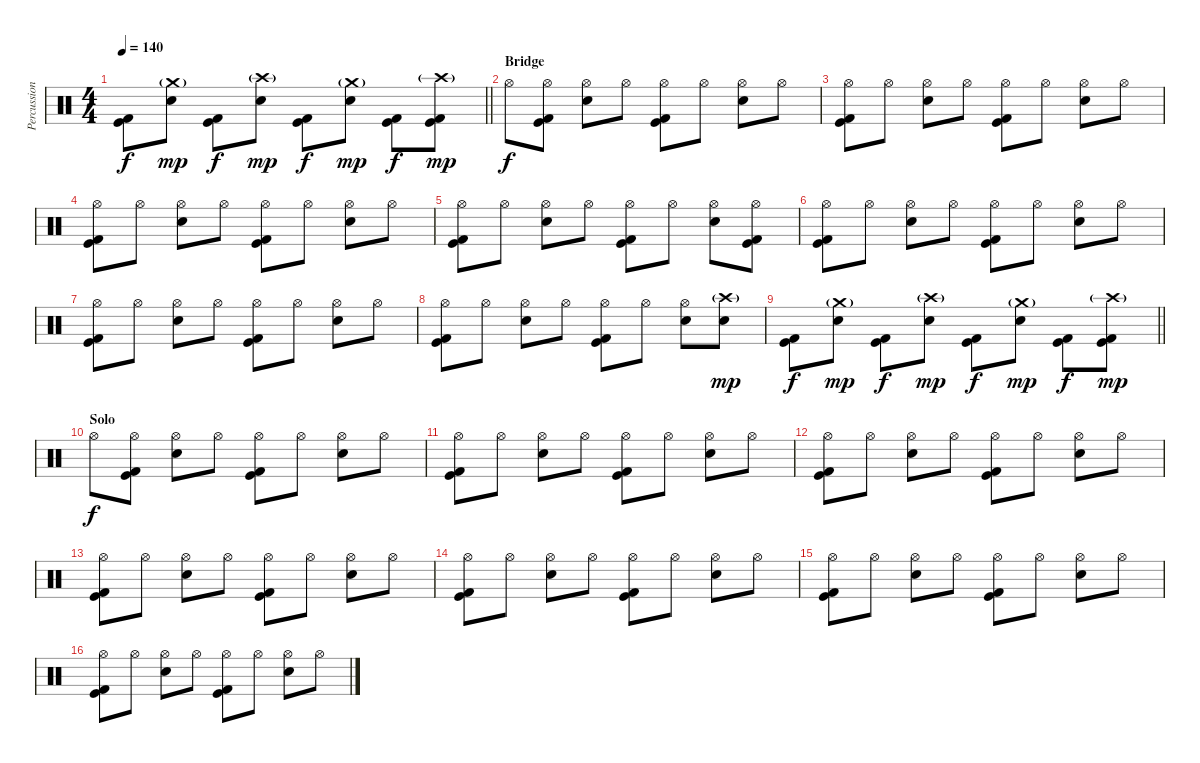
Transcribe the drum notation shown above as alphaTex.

\track ("Percussion" "Percussion") {instrument percussion}
\staff {score}
\articulation defaults
\ts (4 4)
\tempo 140
\clef neutral
\barLineRight lightlight
\ks c
("Kick (hit)" "Kick (hit) 2").8{dy f} ("Crash medium (hit)"{g} "Electric Snare (hit)").8{dy mp} ("Kick (hit)" "Kick (hit) 2").8{dy f} ("Crash high (hit)"{g} "Electric Snare (hit)").8{dy mp} ("Kick (hit)" "Kick (hit) 2").8{dy f} ("Crash medium (hit)"{g} "Electric Snare (hit)").8{dy mp} ("Kick (hit)" "Kick (hit) 2").8{dy f} ("Crash high (hit)"{g} "Kick (hit)" "Kick (hit) 2").8{dy mp} |
\section ("" "Bridge")
"Hi-Hat (open)".8{dy f} ("Hi-Hat (open)" "Kick (hit)" "Kick (hit) 2").8 ("Hi-Hat (open)" "Electric Snare (hit)").8 "Hi-Hat (open)".8 ("Hi-Hat (open)" "Kick (hit)" "Kick (hit) 2").8 "Hi-Hat (open)".8 ("Hi-Hat (open)" "Electric Snare (hit)").8 "Hi-Hat (open)".8 |
("Hi-Hat (open)" "Kick (hit)" "Kick (hit) 2").8 "Hi-Hat (open)".8 ("Hi-Hat (open)" "Electric Snare (hit)").8 "Hi-Hat (open)".8 ("Hi-Hat (open)" "Kick (hit)" "Kick (hit) 2").8 "Hi-Hat (open)".8 ("Hi-Hat (open)" "Electric Snare (hit)").8 "Hi-Hat (open)".8 |
("Hi-Hat (open)" "Kick (hit)" "Kick (hit) 2").8 "Hi-Hat (open)".8 ("Hi-Hat (open)" "Electric Snare (hit)").8 "Hi-Hat (open)".8 ("Hi-Hat (open)" "Kick (hit)" "Kick (hit) 2").8 "Hi-Hat (open)".8 ("Hi-Hat (open)" "Electric Snare (hit)").8 "Hi-Hat (open)".8 |
("Hi-Hat (open)" "Kick (hit)" "Kick (hit) 2").8 "Hi-Hat (open)".8 ("Hi-Hat (open)" "Electric Snare (hit)").8 "Hi-Hat (open)".8 ("Hi-Hat (open)" "Kick (hit)" "Kick (hit) 2").8 "Hi-Hat (open)".8 ("Hi-Hat (open)" "Electric Snare (hit)").8 ("Hi-Hat (open)" "Kick (hit)" "Kick (hit) 2").8 |
("Hi-Hat (open)" "Kick (hit)" "Kick (hit) 2").8 "Hi-Hat (open)".8 ("Hi-Hat (open)" "Electric Snare (hit)").8 "Hi-Hat (open)".8 ("Hi-Hat (open)" "Kick (hit)" "Kick (hit) 2").8 "Hi-Hat (open)".8 ("Hi-Hat (open)" "Electric Snare (hit)").8 "Hi-Hat (open)".8 |
("Hi-Hat (open)" "Kick (hit)" "Kick (hit) 2").8 "Hi-Hat (open)".8 ("Hi-Hat (open)" "Electric Snare (hit)").8 "Hi-Hat (open)".8 ("Hi-Hat (open)" "Kick (hit)" "Kick (hit) 2").8 "Hi-Hat (open)".8 ("Hi-Hat (open)" "Electric Snare (hit)").8 "Hi-Hat (open)".8 |
("Hi-Hat (open)" "Kick (hit)" "Kick (hit) 2").8 "Hi-Hat (open)".8 ("Hi-Hat (open)" "Electric Snare (hit)").8 "Hi-Hat (open)".8 ("Hi-Hat (open)" "Kick (hit)" "Kick (hit) 2").8 "Hi-Hat (open)".8 ("Hi-Hat (open)" "Electric Snare (hit)").8 ("Crash high (hit)"{g} "Electric Snare (hit)").8{dy mp} |
\barLineRight lightlight
("Kick (hit)" "Kick (hit) 2").8{dy f} ("Crash medium (hit)"{g} "Electric Snare (hit)").8{dy mp} ("Kick (hit)" "Kick (hit) 2").8{dy f} ("Crash high (hit)"{g} "Electric Snare (hit)").8{dy mp} ("Kick (hit)" "Kick (hit) 2").8{dy f} ("Crash medium (hit)"{g} "Electric Snare (hit)").8{dy mp} ("Kick (hit)" "Kick (hit) 2").8{dy f} ("Crash high (hit)"{g} "Kick (hit)" "Kick (hit) 2").8{dy mp} |
\section ("" "Solo")
"Hi-Hat (open)".8{dy f} ("Hi-Hat (open)" "Kick (hit)" "Kick (hit) 2").8 ("Hi-Hat (open)" "Electric Snare (hit)").8 "Hi-Hat (open)".8 ("Hi-Hat (open)" "Kick (hit)" "Kick (hit) 2").8 "Hi-Hat (open)".8 ("Hi-Hat (open)" "Electric Snare (hit)").8 "Hi-Hat (open)".8 |
("Hi-Hat (open)" "Kick (hit)" "Kick (hit) 2").8 "Hi-Hat (open)".8 ("Hi-Hat (open)" "Electric Snare (hit)").8 "Hi-Hat (open)".8 ("Hi-Hat (open)" "Kick (hit)" "Kick (hit) 2").8 "Hi-Hat (open)".8 ("Hi-Hat (open)" "Electric Snare (hit)").8 "Hi-Hat (open)".8 |
("Hi-Hat (open)" "Kick (hit)" "Kick (hit) 2").8 "Hi-Hat (open)".8 ("Hi-Hat (open)" "Electric Snare (hit)").8 "Hi-Hat (open)".8 ("Hi-Hat (open)" "Kick (hit)" "Kick (hit) 2").8 "Hi-Hat (open)".8 ("Hi-Hat (open)" "Electric Snare (hit)").8 "Hi-Hat (open)".8 |
("Hi-Hat (open)" "Kick (hit)" "Kick (hit) 2").8 "Hi-Hat (open)".8 ("Hi-Hat (open)" "Electric Snare (hit)").8 "Hi-Hat (open)".8 ("Hi-Hat (open)" "Kick (hit)" "Kick (hit) 2").8 "Hi-Hat (open)".8 ("Hi-Hat (open)" "Electric Snare (hit)").8 "Hi-Hat (open)".8 |
("Hi-Hat (open)" "Kick (hit)" "Kick (hit) 2").8 "Hi-Hat (open)".8 ("Hi-Hat (open)" "Electric Snare (hit)").8 "Hi-Hat (open)".8 ("Hi-Hat (open)" "Kick (hit)" "Kick (hit) 2").8 "Hi-Hat (open)".8 ("Hi-Hat (open)" "Electric Snare (hit)").8 "Hi-Hat (open)".8 |
("Hi-Hat (open)" "Kick (hit)" "Kick (hit) 2").8 "Hi-Hat (open)".8 ("Hi-Hat (open)" "Electric Snare (hit)").8 "Hi-Hat (open)".8 ("Hi-Hat (open)" "Kick (hit)" "Kick (hit) 2").8 "Hi-Hat (open)".8 ("Hi-Hat (open)" "Electric Snare (hit)").8 "Hi-Hat (open)".8 |
("Hi-Hat (open)" "Kick (hit)" "Kick (hit) 2").8 "Hi-Hat (open)".8 ("Hi-Hat (open)" "Electric Snare (hit)").8 "Hi-Hat (open)".8 ("Hi-Hat (open)" "Kick (hit)" "Kick (hit) 2").8 "Hi-Hat (open)".8 ("Hi-Hat (open)" "Electric Snare (hit)").8 "Hi-Hat (open)".8
